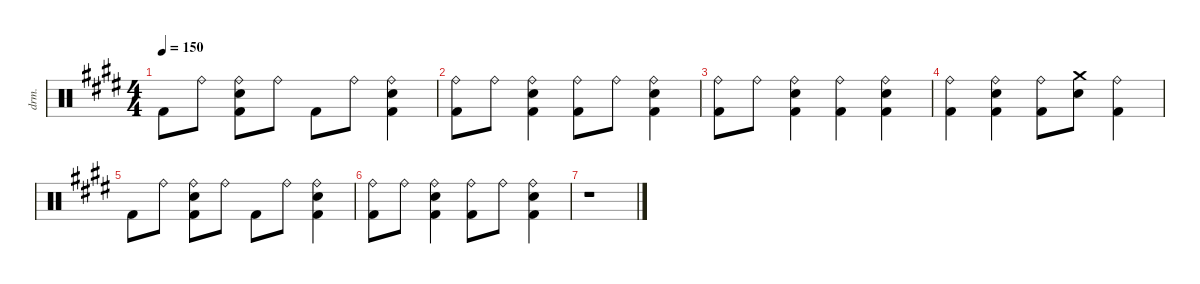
\defaultSystemsLayout 4
\hideDynamics
\bracketExtendMode nobrackets
\otherSystemsTrackNameOrientation horizontal
\track ("Drums - S. Copeland" "drm.") {instrument percussion}
\staff {score}
\articulation defaults
\ts (4 4)
\tempo 150
\clef neutral
\ks c#minor "Kick (hit) 2"{acc forcenatural}.8{dy mf beam Down} "Ride (bell)"{acc forcenatural}.8{beam Down}
("Ride (bell)"{acc forcenatural} "Snare (hit) 2"{acc forcenatural} "Kick (hit) 2"{acc forcenatural}).8{beam Down} "Ride (bell)"{acc forcenatural}.8{beam Down} "Kick (hit) 2"{acc forcenatural}.8{beam Down} "Ride (bell)"{acc forcenatural}.8{beam Down} ("Ride (bell)"{acc forcenatural} "Snare (hit) 2"{acc forcenatural} "Kick (hit) 2"{acc forcenatural}).4{beam Down} |
("Ride (bell)"{acc forcenatural} "Kick (hit) 2"{acc forcenatural}).8{beam Down} "Ride (bell)"{acc forcenatural}.8{beam Down} ("Ride (bell)"{acc forcenatural} "Snare (hit) 2"{acc forcenatural} "Kick (hit) 2"{acc forcenatural}).4{beam Down} ("Ride (bell)"{acc forcenatural} "Kick (hit) 2"{acc forcenatural}).8{beam Down} "Ride (bell)"{acc forcenatural}.8{beam Down} ("Ride (bell)"{acc forcenatural} "Snare (hit) 2"{acc forcenatural} "Kick (hit) 2"{acc forcenatural}).4{beam Down} |
("Ride (bell)"{acc forcenatural} "Kick (hit) 2"{acc forcenatural}).8{beam Down} "Ride (bell)"{acc forcenatural}.8{beam Down} ("Ride (bell)"{acc forcenatural} "Snare (hit) 2"{acc forcenatural} "Kick (hit) 2"{acc forcenatural}).4{beam Down} ("Ride (bell)"{acc forcenatural} "Kick (hit) 2"{acc forcenatural}).4{beam Down} ("Ride (bell)"{acc forcenatural} "Snare (hit) 2"{acc forcenatural} "Kick (hit) 2"{acc forcenatural}).4{beam Down} |
("Ride (bell)"{acc forcenatural} "Kick (hit) 2"{acc forcenatural}).4{beam Down} ("Ride (bell)"{acc forcenatural} "Snare (hit) 2"{acc forcenatural} "Kick (hit) 2"{acc forcenatural}).4{beam Down} ("Ride (bell)"{acc forcenatural} "Kick (hit) 2"{acc forcenatural}).8{beam Down} ("Snare (hit) 2"{acc forcenatural} "Crash medium (hit)"{acc forcenatural}).8{beam Down} ("Ride (bell)"{acc forcenatural} "Kick (hit) 2"{acc forcenatural}).4{beam Down} |
"Kick (hit) 2"{acc forcenatural}.8{beam Down} "Ride (bell)"{acc forcenatural}.8{beam Down} ("Ride (bell)"{acc forcenatural} "Snare (hit) 2"{acc forcenatural} "Kick (hit) 2"{acc forcenatural}).8{beam Down} "Ride (bell)"{acc forcenatural}.8{beam Down} "Kick (hit) 2"{acc forcenatural}.8{beam Down} "Ride (bell)"{acc forcenatural}.8{beam Down} ("Ride (bell)"{acc forcenatural} "Snare (hit) 2"{acc forcenatural} "Kick (hit) 2"{acc forcenatural}).4{beam Down} |
("Ride (bell)"{acc forcenatural} "Kick (hit) 2"{acc forcenatural}).8{beam Down} "Ride (bell)"{acc forcenatural}.8{beam Down} ("Ride (bell)"{acc forcenatural} "Snare (hit) 2"{acc forcenatural} "Kick (hit) 2"{acc forcenatural}).4{beam Down} ("Ride (bell)"{acc forcenatural} "Kick (hit) 2"{acc forcenatural}).8{beam Down} "Ride (bell)"{acc forcenatural}.8{beam Down} ("Ride (bell)"{acc forcenatural} "Snare (hit) 2"{acc forcenatural} "Kick (hit) 2"{acc forcenatural}).4{beam Down} |
r.1{beam Down}
